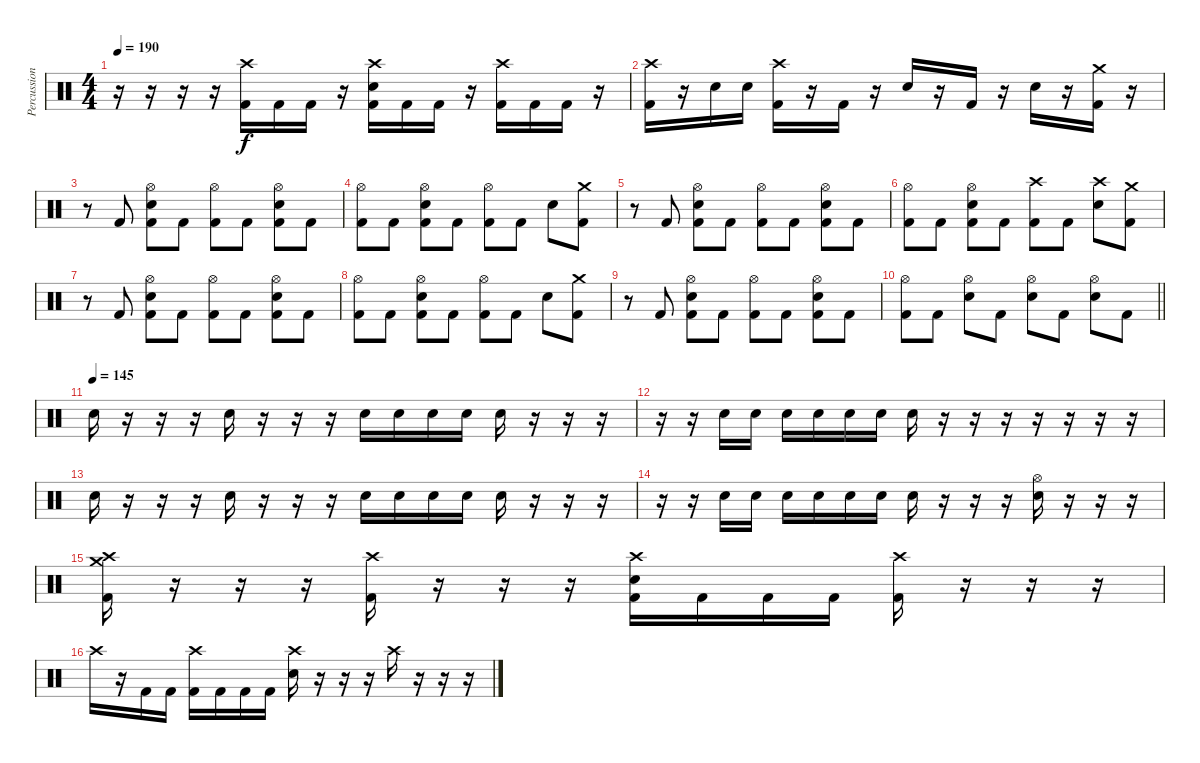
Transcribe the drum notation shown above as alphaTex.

\track ("Percussion" "Percussion") {instrument percussion}
\staff {score}
\articulation defaults
\ts (4 4)
\tempo 190
\clef neutral
\ks c
r.16{dy f} r.16 r.16 r.16 ("Crash high (hit)" "Kick (hit) 2").16 "Kick (hit) 2".16 "Kick (hit) 2".16 r.16 ("Crash high (hit)" "Snare (hit) 2" "Kick (hit) 2").16 "Kick (hit) 2".16 "Kick (hit) 2".16 r.16 ("Crash high (hit)" "Kick (hit) 2").16 "Kick (hit) 2".16 "Kick (hit) 2".16 r.16 |
("Crash high (hit)" "Kick (hit) 2").16 r.16 "Snare (hit) 2".16 "Snare (hit) 2".16 ("Crash high (hit)" "Kick (hit) 2").16 r.16 "Kick (hit) 2".16 r.16 "Snare (hit) 2".16 r.16 "Kick (hit) 2".16 r.16 "Snare (hit) 2".16 r.16 ("Crash medium (hit)" "Kick (hit) 2").16 r.16 |
r.8 "Kick (hit) 2".8 ("Hi-Hat (open)" "Snare (hit) 2" "Kick (hit) 2").8 "Kick (hit) 2".8 ("Hi-Hat (open)" "Kick (hit) 2").8 "Kick (hit) 2".8 ("Hi-Hat (open)" "Snare (hit) 2" "Kick (hit) 2").8 "Kick (hit) 2".8 |
("Hi-Hat (open)" "Kick (hit) 2").8 "Kick (hit) 2".8 ("Hi-Hat (open)" "Snare (hit) 2" "Kick (hit) 2").8 "Kick (hit) 2".8 ("Hi-Hat (open)" "Kick (hit) 2").8 "Kick (hit) 2".8 "Snare (hit) 2".8 ("Crash medium (hit)" "Kick (hit) 2").8 |
r.8 "Kick (hit) 2".8 ("Hi-Hat (open)" "Snare (hit) 2" "Kick (hit) 2").8 "Kick (hit) 2".8 ("Hi-Hat (open)" "Kick (hit) 2").8 "Kick (hit) 2".8 ("Hi-Hat (open)" "Snare (hit) 2" "Kick (hit) 2").8 "Kick (hit) 2".8 |
("Hi-Hat (open)" "Kick (hit) 2").8 "Kick (hit) 2".8 ("Hi-Hat (open)" "Snare (hit) 2" "Kick (hit) 2").8 "Kick (hit) 2".8 ("Crash high (hit)" "Kick (hit) 2").8 "Kick (hit) 2".8 ("Crash high (hit)" "Snare (hit) 2").8 ("Crash medium (hit)" "Kick (hit) 2").8 |
r.8 "Kick (hit) 2".8 ("Hi-Hat (open)" "Snare (hit) 2" "Kick (hit) 2").8 "Kick (hit) 2".8 ("Hi-Hat (open)" "Kick (hit) 2").8 "Kick (hit) 2".8 ("Hi-Hat (open)" "Snare (hit) 2" "Kick (hit) 2").8 "Kick (hit) 2".8 |
("Hi-Hat (open)" "Kick (hit) 2").8 "Kick (hit) 2".8 ("Hi-Hat (open)" "Snare (hit) 2" "Kick (hit) 2").8 "Kick (hit) 2".8 ("Hi-Hat (open)" "Kick (hit) 2").8 "Kick (hit) 2".8 "Snare (hit) 2".8 ("Crash medium (hit)" "Kick (hit) 2").8 |
r.8 "Kick (hit) 2".8 ("Hi-Hat (open)" "Snare (hit) 2" "Kick (hit) 2").8 "Kick (hit) 2".8 ("Hi-Hat (open)" "Kick (hit) 2").8 "Kick (hit) 2".8 ("Hi-Hat (open)" "Snare (hit) 2" "Kick (hit) 2").8 "Kick (hit) 2".8 |
\barLineRight lightlight
("Hi-Hat (open)" "Kick (hit) 2").8 "Kick (hit) 2".8 ("Hi-Hat (open)" "Snare (hit) 2").8 "Kick (hit) 2".8 ("Hi-Hat (open)" "Snare (hit) 2").8 "Kick (hit) 2".8 ("Hi-Hat (open)" "Snare (hit) 2").8 "Kick (hit) 2".8 |
\section ("" "")
\tempo (145)
"Snare (hit) 2".16 r.16 r.16 r.16 "Snare (hit) 2".16 r.16 r.16 r.16 "Snare (hit) 2".16 "Snare (hit) 2".16 "Snare (hit) 2".16 "Snare (hit) 2".16 "Snare (hit) 2".16 r.16 r.16 r.16 |
r.16 r.16 "Snare (hit) 2".16 "Snare (hit) 2".16 "Snare (hit) 2".16 "Snare (hit) 2".16 "Snare (hit) 2".16 "Snare (hit) 2".16 "Snare (hit) 2".16 r.16 r.16 r.16 r.16 r.16 r.16 r.16 |
"Snare (hit) 2".16 r.16 r.16 r.16 "Snare (hit) 2".16 r.16 r.16 r.16 "Snare (hit) 2".16 "Snare (hit) 2".16 "Snare (hit) 2".16 "Snare (hit) 2".16 "Snare (hit) 2".16 r.16 r.16 r.16 |
r.16 r.16 "Snare (hit) 2".16 "Snare (hit) 2".16 "Snare (hit) 2".16 "Snare (hit) 2".16 "Snare (hit) 2".16 "Snare (hit) 2".16 "Snare (hit) 2".16 r.16 r.16 r.16 ("Hi-Hat (open)" "Snare (hit) 2").16 r.16 r.16 r.16 |
("Crash high (hit)" "Crash medium (hit)" "Kick (hit) 2").16 r.16 r.16 r.16 ("Crash high (hit)" "Kick (hit) 2").16 r.16 r.16 r.16 ("Crash high (hit)" "Snare (hit) 2" "Kick (hit) 2").16 "Kick (hit) 2".16 "Kick (hit) 2".16 "Kick (hit) 2".16 ("Crash high (hit)" "Kick (hit) 2").16 r.16 r.16 r.16 |
"Crash high (hit)".16 r.16 "Kick (hit) 2".16 "Kick (hit) 2".16 ("Crash high (hit)" "Kick (hit) 2").16 "Kick (hit) 2".16 "Kick (hit) 2".16 "Kick (hit) 2".16 ("Crash high (hit)" "Snare (hit) 2").16 r.16 r.16 r.16 "Crash high (hit)".16 r.16 r.16 r.16
